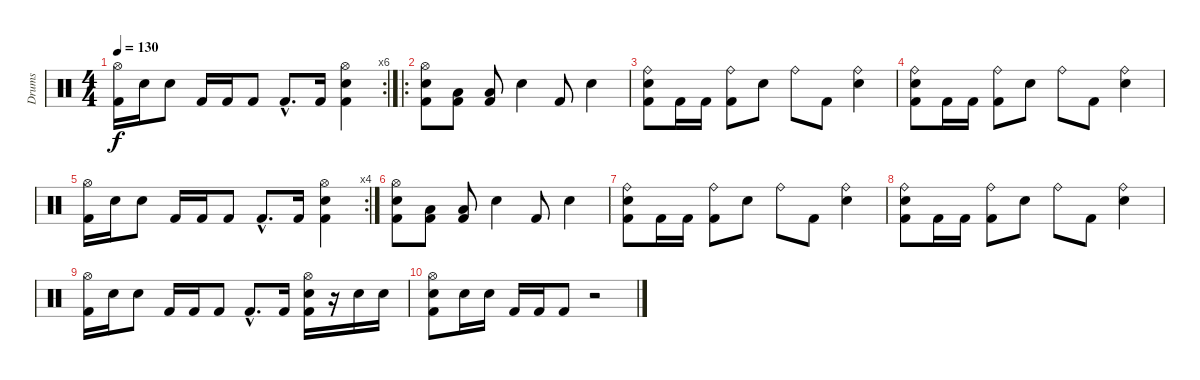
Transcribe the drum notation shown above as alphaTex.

\track ("Drums" "Drums") {instrument percussion}
\staff {score}
\articulation defaults
\rc 6
\ts (4 4)
\tempo 130
\clef neutral
\ks c
("Hi-Hat (open)" "Kick (hit) 2").16{dy f} "Electric Snare (hit)".16 "Electric Snare (hit)".8 "Kick (hit) 2".16 "Kick (hit) 2".16 "Kick (hit) 2".8 "Kick (hit) 2"{hac}.8{d} "Kick (hit) 2".16 ("Hi-Hat (open)" "Kick (hit) 2" "Electric Snare (hit)").4 |
\ro
("Hi-Hat (open)" "Electric Snare (hit)" "Kick (hit) 2").8 ("Low Floor Tom (hit)" "Kick (hit) 2").8 ("Low Floor Tom (hit)" "Kick (hit) 2").8 "Electric Snare (hit)".4 "Kick (hit) 2".8 "Electric Snare (hit)".4 |
("Ride (bell)" "Electric Snare (hit)" "Kick (hit) 2").8 "Kick (hit) 2".16 "Kick (hit) 2".16 ("Ride (bell)" "Kick (hit) 2").8 "Electric Snare (hit)".8 "Ride (bell)".8 "Kick (hit) 2".8 ("Ride (bell)" "Electric Snare (hit)").4 |
("Ride (bell)" "Electric Snare (hit)" "Kick (hit) 2").8 "Kick (hit) 2".16 "Kick (hit) 2".16 ("Ride (bell)" "Kick (hit) 2").8 "Electric Snare (hit)".8 "Ride (bell)".8 "Kick (hit) 2".8 ("Ride (bell)" "Electric Snare (hit)").4 |
\rc 4
("Hi-Hat (open)" "Kick (hit) 2").16 "Electric Snare (hit)".16 "Electric Snare (hit)".8 "Kick (hit) 2".16 "Kick (hit) 2".16 "Kick (hit) 2".8 "Kick (hit) 2"{hac}.8{d} "Kick (hit) 2".16 ("Hi-Hat (open)" "Kick (hit) 2" "Electric Snare (hit)").4 |
("Hi-Hat (open)" "Electric Snare (hit)" "Kick (hit) 2").8 ("Low Floor Tom (hit)" "Kick (hit) 2").8 ("Low Floor Tom (hit)" "Kick (hit) 2").8 "Electric Snare (hit)".4 "Kick (hit) 2".8 "Electric Snare (hit)".4 |
("Ride (bell)" "Electric Snare (hit)" "Kick (hit) 2").8 "Kick (hit) 2".16 "Kick (hit) 2".16 ("Ride (bell)" "Kick (hit) 2").8 "Electric Snare (hit)".8 "Ride (bell)".8 "Kick (hit) 2".8 ("Ride (bell)" "Electric Snare (hit)").4 |
("Ride (bell)" "Electric Snare (hit)" "Kick (hit) 2").8 "Kick (hit) 2".16 "Kick (hit) 2".16 ("Ride (bell)" "Kick (hit) 2").8 "Electric Snare (hit)".8 "Ride (bell)".8 "Kick (hit) 2".8 ("Ride (bell)" "Electric Snare (hit)").4 |
("Hi-Hat (open)" "Kick (hit) 2").16 "Electric Snare (hit)".16 "Electric Snare (hit)".8 "Kick (hit) 2".16 "Kick (hit) 2".16 "Kick (hit) 2".8 "Kick (hit) 2"{hac}.8{d} "Kick (hit) 2".16 ("Hi-Hat (open)" "Kick (hit) 2" "Electric Snare (hit)").16 r.16 "Electric Snare (hit)".16 "Electric Snare (hit)".16 |
("Hi-Hat (open)" "Electric Snare (hit)" "Kick (hit) 2").8 "Electric Snare (hit)".16 "Electric Snare (hit)".16 "Kick (hit) 2".16 "Kick (hit) 2".16 "Kick (hit) 2".8 r.2
